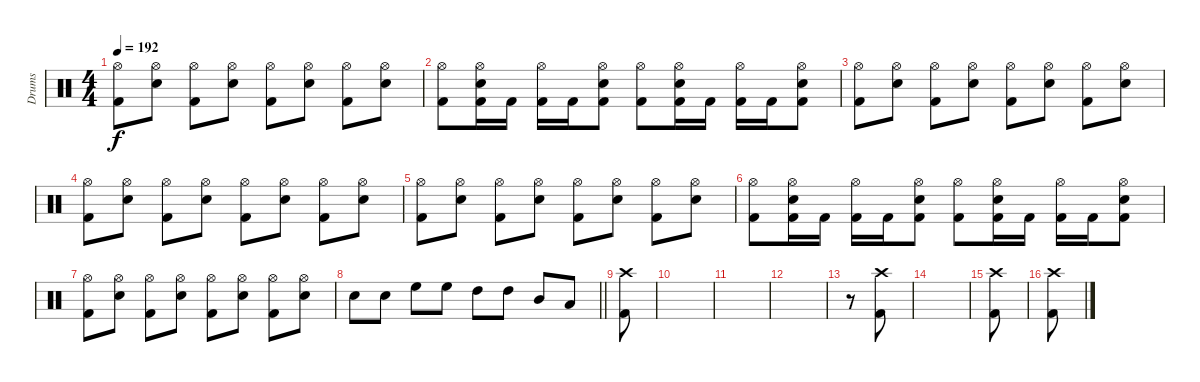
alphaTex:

\track ("Drums" "Drums") {instrument percussion}
\staff {score}
\articulation defaults
\ts (4 4)
\tempo 192
\clef neutral
\ks c
("Hi-Hat (open)" "Kick (hit) 2").8{dy f} ("Hi-Hat (open)" "Electric Snare (hit)").8 ("Hi-Hat (open)" "Kick (hit) 2").8 ("Hi-Hat (open)" "Electric Snare (hit)").8 ("Hi-Hat (open)" "Kick (hit) 2").8 ("Hi-Hat (open)" "Electric Snare (hit)").8 ("Hi-Hat (open)" "Kick (hit) 2").8 ("Hi-Hat (open)" "Electric Snare (hit)").8 |
("Hi-Hat (open)" "Kick (hit) 2").8 ("Hi-Hat (open)" "Electric Snare (hit)" "Kick (hit) 2").16 "Kick (hit) 2".16 ("Hi-Hat (open)" "Kick (hit) 2").16 "Kick (hit) 2".16 ("Hi-Hat (open)" "Electric Snare (hit)" "Kick (hit) 2").8 ("Hi-Hat (open)" "Kick (hit) 2").8 ("Hi-Hat (open)" "Electric Snare (hit)" "Kick (hit) 2").16 "Kick (hit) 2".16 ("Hi-Hat (open)" "Kick (hit) 2").16 "Kick (hit) 2".16 ("Hi-Hat (open)" "Electric Snare (hit)" "Kick (hit) 2").8 |
("Hi-Hat (open)" "Kick (hit) 2").8 ("Hi-Hat (open)" "Electric Snare (hit)").8 ("Hi-Hat (open)" "Kick (hit) 2").8 ("Hi-Hat (open)" "Electric Snare (hit)").8 ("Hi-Hat (open)" "Kick (hit) 2").8 ("Hi-Hat (open)" "Electric Snare (hit)").8 ("Hi-Hat (open)" "Kick (hit) 2").8 ("Hi-Hat (open)" "Electric Snare (hit)").8 |
("Hi-Hat (open)" "Kick (hit) 2").8 ("Hi-Hat (open)" "Electric Snare (hit)").8 ("Hi-Hat (open)" "Kick (hit) 2").8 ("Hi-Hat (open)" "Electric Snare (hit)").8 ("Hi-Hat (open)" "Kick (hit) 2").8 ("Hi-Hat (open)" "Electric Snare (hit)").8 ("Hi-Hat (open)" "Kick (hit) 2").8 ("Hi-Hat (open)" "Electric Snare (hit)").8 |
("Hi-Hat (open)" "Kick (hit) 2").8 ("Hi-Hat (open)" "Electric Snare (hit)").8 ("Hi-Hat (open)" "Kick (hit) 2").8 ("Hi-Hat (open)" "Electric Snare (hit)").8 ("Hi-Hat (open)" "Kick (hit) 2").8 ("Hi-Hat (open)" "Electric Snare (hit)").8 ("Hi-Hat (open)" "Kick (hit) 2").8 ("Hi-Hat (open)" "Electric Snare (hit)").8 |
("Hi-Hat (open)" "Kick (hit) 2").8 ("Hi-Hat (open)" "Electric Snare (hit)" "Kick (hit) 2").16 "Kick (hit) 2".16 ("Hi-Hat (open)" "Kick (hit) 2").16 "Kick (hit) 2".16 ("Hi-Hat (open)" "Electric Snare (hit)" "Kick (hit) 2").8 ("Hi-Hat (open)" "Kick (hit) 2").8 ("Hi-Hat (open)" "Electric Snare (hit)" "Kick (hit) 2").16 "Kick (hit) 2".16 ("Hi-Hat (open)" "Kick (hit) 2").16 "Kick (hit) 2".16 ("Hi-Hat (open)" "Electric Snare (hit)" "Kick (hit) 2").8 |
("Hi-Hat (open)" "Kick (hit) 2").8 ("Hi-Hat (open)" "Electric Snare (hit)").8 ("Hi-Hat (open)" "Kick (hit) 2").8 ("Hi-Hat (open)" "Electric Snare (hit)").8 ("Hi-Hat (open)" "Kick (hit) 2").8 ("Hi-Hat (open)" "Electric Snare (hit)").8 ("Hi-Hat (open)" "Kick (hit) 2").8 ("Hi-Hat (open)" "Electric Snare (hit)").8 |
\barLineRight lightlight "Electric Snare (hit)".8 "Electric Snare (hit)".8 "High Floor Tom (hit)".8 "High Floor Tom (hit)".8 "High Tom (hit)".8 "High Tom (hit)".8 "Mid Tom (hit)".8 "Low Tom (hit)".8
|
\section ("" "")
("Crash high (hit)" "Kick (hit) 2").8 |
|
|
|
r.8 ("Crash high (hit)" "Kick (hit) 2").8 |
|
("Crash high (hit)" "Kick (hit) 2").8 |
("Crash high (hit)" "Kick (hit) 2").8
